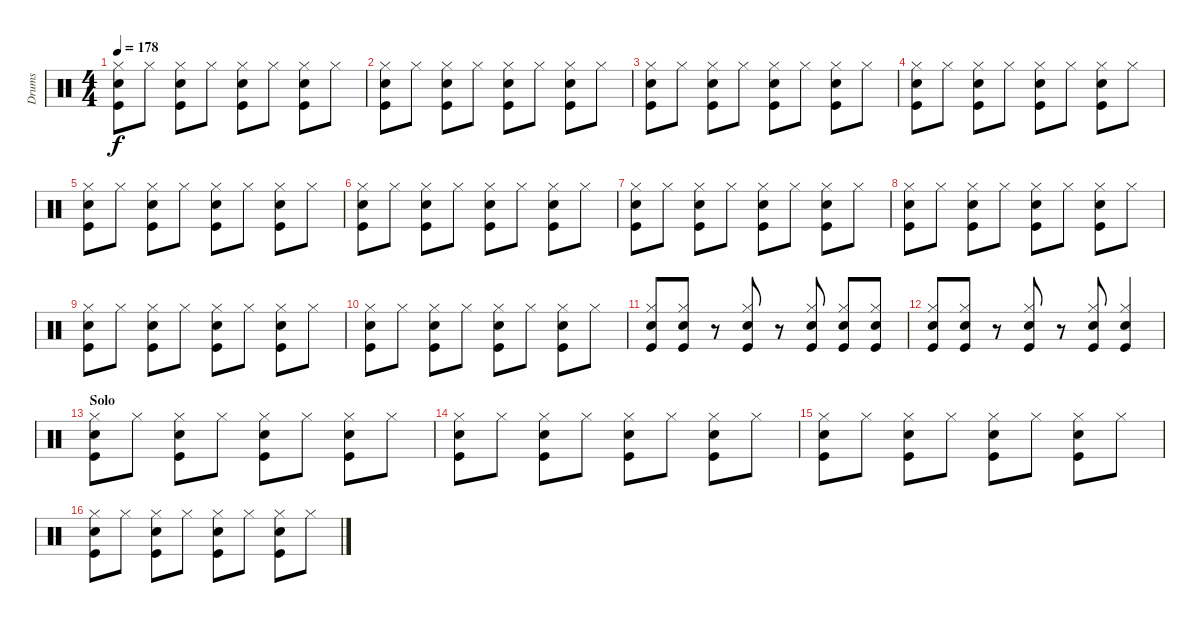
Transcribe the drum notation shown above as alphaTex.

\track ("Drums" "Drums") {instrument percussion}
\staff {score}
\articulation defaults
\ts (4 4)
\tempo 178
\clef neutral
\ks c
("Electric Snare (hit)" "Hi-Hat (closed)" "Kick (hit)").8{dy f} "Hi-Hat (closed)".8 ("Electric Snare (hit)" "Hi-Hat (closed)" "Kick (hit)").8 "Hi-Hat (closed)".8 ("Electric Snare (hit)" "Hi-Hat (closed)" "Kick (hit)").8 "Hi-Hat (closed)".8 ("Electric Snare (hit)" "Hi-Hat (closed)" "Kick (hit)").8 "Hi-Hat (closed)".8 |
("Electric Snare (hit)" "Hi-Hat (closed)" "Kick (hit)").8 "Hi-Hat (closed)".8 ("Electric Snare (hit)" "Hi-Hat (closed)" "Kick (hit)").8 "Hi-Hat (closed)".8 ("Electric Snare (hit)" "Hi-Hat (closed)" "Kick (hit)").8 "Hi-Hat (closed)".8 ("Electric Snare (hit)" "Hi-Hat (closed)" "Kick (hit)").8 "Hi-Hat (closed)".8 |
("Electric Snare (hit)" "Hi-Hat (closed)" "Kick (hit)").8 "Hi-Hat (closed)".8 ("Electric Snare (hit)" "Hi-Hat (closed)" "Kick (hit)").8 "Hi-Hat (closed)".8 ("Electric Snare (hit)" "Hi-Hat (closed)" "Kick (hit)").8 "Hi-Hat (closed)".8 ("Electric Snare (hit)" "Hi-Hat (closed)" "Kick (hit)").8 "Hi-Hat (closed)".8 |
("Electric Snare (hit)" "Hi-Hat (closed)" "Kick (hit)").8 "Hi-Hat (closed)".8 ("Electric Snare (hit)" "Hi-Hat (closed)" "Kick (hit)").8 "Hi-Hat (closed)".8 ("Electric Snare (hit)" "Hi-Hat (closed)" "Kick (hit)").8 "Hi-Hat (closed)".8 ("Electric Snare (hit)" "Hi-Hat (closed)" "Kick (hit)").8 "Hi-Hat (closed)".8 |
("Electric Snare (hit)" "Hi-Hat (closed)" "Kick (hit)").8 "Hi-Hat (closed)".8 ("Electric Snare (hit)" "Hi-Hat (closed)" "Kick (hit)").8 "Hi-Hat (closed)".8 ("Electric Snare (hit)" "Hi-Hat (closed)" "Kick (hit)").8 "Hi-Hat (closed)".8 ("Electric Snare (hit)" "Hi-Hat (closed)" "Kick (hit)").8 "Hi-Hat (closed)".8 |
("Electric Snare (hit)" "Hi-Hat (closed)" "Kick (hit)").8 "Hi-Hat (closed)".8 ("Electric Snare (hit)" "Hi-Hat (closed)" "Kick (hit)").8 "Hi-Hat (closed)".8 ("Electric Snare (hit)" "Hi-Hat (closed)" "Kick (hit)").8 "Hi-Hat (closed)".8 ("Electric Snare (hit)" "Hi-Hat (closed)" "Kick (hit)").8 "Hi-Hat (closed)".8 |
("Electric Snare (hit)" "Hi-Hat (closed)" "Kick (hit)").8 "Hi-Hat (closed)".8 ("Electric Snare (hit)" "Hi-Hat (closed)" "Kick (hit)").8 "Hi-Hat (closed)".8 ("Electric Snare (hit)" "Hi-Hat (closed)" "Kick (hit)").8 "Hi-Hat (closed)".8 ("Electric Snare (hit)" "Hi-Hat (closed)" "Kick (hit)").8 "Hi-Hat (closed)".8 |
("Electric Snare (hit)" "Hi-Hat (closed)" "Kick (hit)").8 "Hi-Hat (closed)".8 ("Electric Snare (hit)" "Hi-Hat (closed)" "Kick (hit)").8 "Hi-Hat (closed)".8 ("Electric Snare (hit)" "Hi-Hat (closed)" "Kick (hit)").8 "Hi-Hat (closed)".8 ("Electric Snare (hit)" "Hi-Hat (closed)" "Kick (hit)").8 "Hi-Hat (closed)".8 |
("Electric Snare (hit)" "Hi-Hat (closed)" "Kick (hit)").8 "Hi-Hat (closed)".8 ("Electric Snare (hit)" "Hi-Hat (closed)" "Kick (hit)").8 "Hi-Hat (closed)".8 ("Electric Snare (hit)" "Hi-Hat (closed)" "Kick (hit)").8 "Hi-Hat (closed)".8 ("Electric Snare (hit)" "Hi-Hat (closed)" "Kick (hit)").8 "Hi-Hat (closed)".8 |
("Electric Snare (hit)" "Hi-Hat (closed)" "Kick (hit)").8 "Hi-Hat (closed)".8 ("Electric Snare (hit)" "Hi-Hat (closed)" "Kick (hit)").8 "Hi-Hat (closed)".8 ("Electric Snare (hit)" "Hi-Hat (closed)" "Kick (hit)").8 "Hi-Hat (closed)".8 ("Electric Snare (hit)" "Hi-Hat (closed)" "Kick (hit)").8 "Hi-Hat (closed)".8 |
("Electric Snare (hit)" "Hi-Hat (closed)" "Kick (hit)").8 ("Electric Snare (hit)" "Hi-Hat (closed)" "Kick (hit)").8 r.8 ("Electric Snare (hit)" "Hi-Hat (closed)" "Kick (hit)").8 r.8 ("Electric Snare (hit)" "Hi-Hat (closed)" "Kick (hit)").8 ("Electric Snare (hit)" "Hi-Hat (closed)" "Kick (hit)").8 ("Electric Snare (hit)" "Hi-Hat (closed)" "Kick (hit)").8 |
("Electric Snare (hit)" "Hi-Hat (closed)" "Kick (hit)").8 ("Electric Snare (hit)" "Hi-Hat (closed)" "Kick (hit)").8 r.8 ("Electric Snare (hit)" "Hi-Hat (closed)" "Kick (hit)").8 r.8 ("Electric Snare (hit)" "Hi-Hat (closed)" "Kick (hit)").8 ("Electric Snare (hit)" "Hi-Hat (closed)" "Kick (hit)").4 |
\section ("" "Solo")
("Electric Snare (hit)" "Hi-Hat (closed)" "Kick (hit)").8 "Hi-Hat (closed)".8 ("Electric Snare (hit)" "Hi-Hat (closed)" "Kick (hit)").8 "Hi-Hat (closed)".8 ("Electric Snare (hit)" "Hi-Hat (closed)" "Kick (hit)").8 "Hi-Hat (closed)".8 ("Electric Snare (hit)" "Hi-Hat (closed)" "Kick (hit)").8 "Hi-Hat (closed)".8 |
("Electric Snare (hit)" "Hi-Hat (closed)" "Kick (hit)").8 "Hi-Hat (closed)".8 ("Electric Snare (hit)" "Hi-Hat (closed)" "Kick (hit)").8 "Hi-Hat (closed)".8 ("Electric Snare (hit)" "Hi-Hat (closed)" "Kick (hit)").8 "Hi-Hat (closed)".8 ("Electric Snare (hit)" "Hi-Hat (closed)" "Kick (hit)").8 "Hi-Hat (closed)".8 |
("Electric Snare (hit)" "Hi-Hat (closed)" "Kick (hit)").8 "Hi-Hat (closed)".8 ("Electric Snare (hit)" "Hi-Hat (closed)" "Kick (hit)").8 "Hi-Hat (closed)".8 ("Electric Snare (hit)" "Hi-Hat (closed)" "Kick (hit)").8 "Hi-Hat (closed)".8 ("Electric Snare (hit)" "Hi-Hat (closed)" "Kick (hit)").8 "Hi-Hat (closed)".8 |
("Electric Snare (hit)" "Hi-Hat (closed)" "Kick (hit)").8 "Hi-Hat (closed)".8 ("Electric Snare (hit)" "Hi-Hat (closed)" "Kick (hit)").8 "Hi-Hat (closed)".8 ("Electric Snare (hit)" "Hi-Hat (closed)" "Kick (hit)").8 "Hi-Hat (closed)".8 ("Electric Snare (hit)" "Hi-Hat (closed)" "Kick (hit)").8 "Hi-Hat (closed)".8
